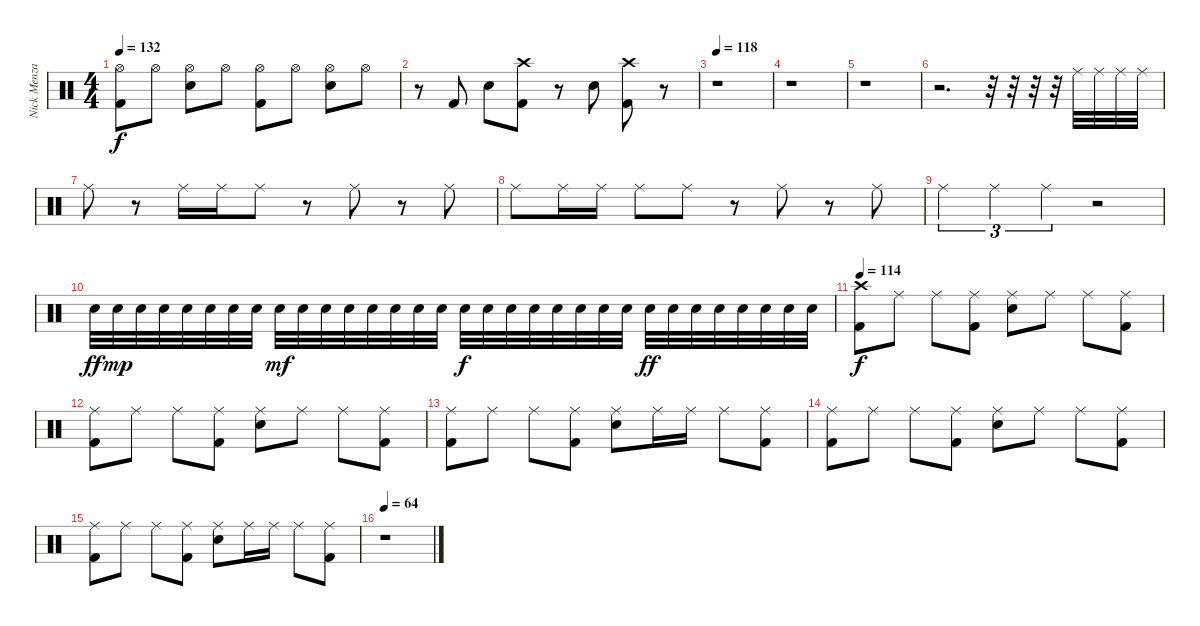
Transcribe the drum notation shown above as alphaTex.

\track ("Nick Menza (Drums)" "Nick Menza") {instrument percussion}
\staff {score}
\articulation defaults
\ts (4 4)
\tempo 132
\clef neutral
\ks c
("Hi-Hat (open)" "Kick (hit) 2").8{dy f} "Hi-Hat (open)".8 ("Hi-Hat (open)" "Snare (hit) 2").8 "Hi-Hat (open)".8 ("Hi-Hat (open)" "Kick (hit) 2").8 "Hi-Hat (open)".8 ("Hi-Hat (open)" "Snare (hit) 2").8 "Hi-Hat (open)".8 |
r.8 "Kick (hit) 2".8 "Snare (hit) 2".8 ("Crash high (hit)" "Kick (hit) 2").8 r.8 "Snare (hit) 2".8 ("Crash high (hit)" "Kick (hit) 2").8 r.8 |
\tempo 118
r.1 |
r.1 |
r.1 |
r.2{d} r.32 r.32 r.32 r.32 "Ride (middle)".32 "Ride (middle)".32 "Ride (middle)".32 "Ride (middle)".32 |
"Ride (middle)".8 r.8 "Ride (middle)".16 "Ride (middle)".16 "Ride (middle)".8 r.8 "Ride (middle)".8 r.8 "Ride (middle)".8 |
"Ride (middle)".8 "Ride (middle)".16 "Ride (middle)".16 "Ride (middle)".8 "Ride (middle)".8 r.8 "Ride (middle)".8 r.8 "Ride (middle)".8 |
"Ride (middle)".4{tu (3 2)} "Ride (middle)".4{tu (3 2)} "Ride (middle)".4{tu (3 2)} r.2 |
"Snare (hit) 2".32{dy ff} "Snare (hit) 2".32{dy mp} "Snare (hit) 2".32 "Snare (hit) 2".32 "Snare (hit) 2".32 "Snare (hit) 2".32 "Snare (hit) 2".32 "Snare (hit) 2".32 "Snare (hit) 2".32{dy mf} "Snare (hit) 2".32 "Snare (hit) 2".32 "Snare (hit) 2".32 "Snare (hit) 2".32 "Snare (hit) 2".32 "Snare (hit) 2".32 "Snare (hit) 2".32 "Snare (hit) 2".32{dy f} "Snare (hit) 2".32 "Snare (hit) 2".32 "Snare (hit) 2".32 "Snare (hit) 2".32 "Snare (hit) 2".32 "Snare (hit) 2".32 "Snare (hit) 2".32 "Snare (hit) 2".32{dy ff} "Snare (hit) 2".32 "Snare (hit) 2".32 "Snare (hit) 2".32 "Snare (hit) 2".32 "Snare (hit) 2".32 "Snare (hit) 2".32 "Snare (hit) 2".32 |
\tempo 114
("Crash high (hit)" "Kick (hit) 2").8{dy f} "Ride (middle)".8 "Ride (middle)".8 ("Ride (middle)" "Kick (hit) 2").8 ("Ride (middle)" "Snare (hit) 2").8 "Ride (middle)".8 "Ride (middle)".8 ("Ride (middle)" "Kick (hit) 2").8 |
("Ride (middle)" "Kick (hit) 2").8 "Ride (middle)".8 "Ride (middle)".8 ("Ride (middle)" "Kick (hit) 2").8 ("Ride (middle)" "Snare (hit) 2").8 "Ride (middle)".8 "Ride (middle)".8 ("Ride (middle)" "Kick (hit) 2").8 |
("Ride (middle)" "Kick (hit) 2").8 "Ride (middle)".8 "Ride (middle)".8 ("Ride (middle)" "Kick (hit) 2").8 ("Ride (middle)" "Snare (hit) 2").8 "Ride (middle)".16 "Ride (middle)".16 "Ride (middle)".8 ("Ride (middle)" "Kick (hit) 2").8 |
("Ride (middle)" "Kick (hit) 2").8 "Ride (middle)".8 "Ride (middle)".8 ("Ride (middle)" "Kick (hit) 2").8 ("Ride (middle)" "Snare (hit) 2").8 "Ride (middle)".8 "Ride (middle)".8 ("Ride (middle)" "Kick (hit) 2").8 |
("Ride (middle)" "Kick (hit) 2").8 "Ride (middle)".8 "Ride (middle)".8 ("Ride (middle)" "Kick (hit) 2").8 ("Ride (middle)" "Snare (hit) 2").8 "Ride (middle)".16 "Ride (middle)".16 "Ride (middle)".8 ("Ride (middle)" "Kick (hit) 2").8 |
\tempo 64
r.1
